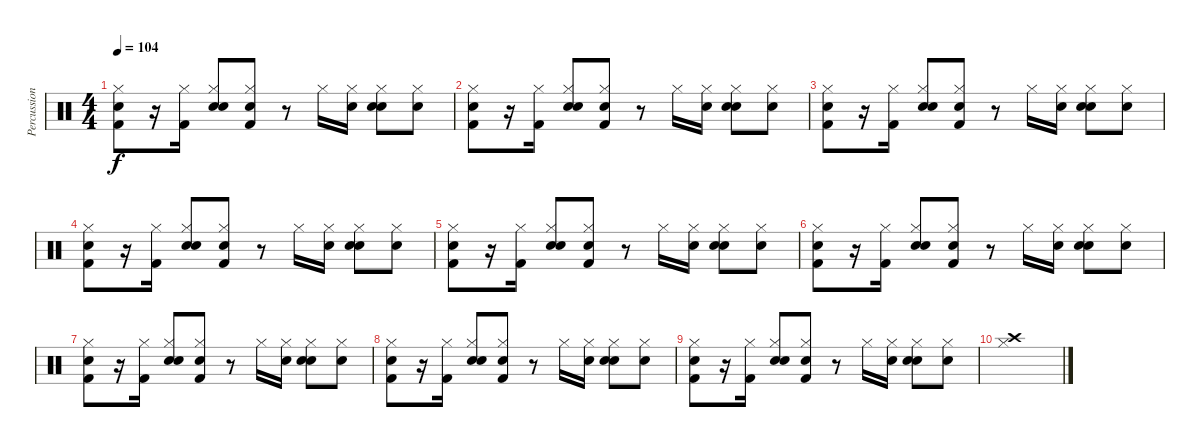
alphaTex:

\track ("Percussion" "Percussion") {instrument percussion}
\staff {score}
\articulation defaults
\ts (4 4)
\tempo 104
\clef neutral
\ks c
("Snare (hit)" "Hi-Hat (closed)" "Kick (hit) 2").8{dy f} r.16 ("Kick (hit) 2" "Hi-Hat (closed)").16 ("Snare (hit)" "Electric Snare (hit)" "Hi-Hat (closed)").8 ("Snare (hit)" "Kick (hit) 2" "Hi-Hat (closed)").8 r.8 "Hi-Hat (closed)".16 ("Snare (hit)" "Hi-Hat (closed)").16 ("Snare (hit)" "Electric Snare (hit)" "Hi-Hat (closed)").8 ("Snare (hit)" "Hi-Hat (closed)").8 |
("Snare (hit)" "Hi-Hat (closed)" "Kick (hit) 2").8 r.16 ("Kick (hit) 2" "Hi-Hat (closed)").16 ("Snare (hit)" "Electric Snare (hit)" "Hi-Hat (closed)").8 ("Snare (hit)" "Kick (hit) 2" "Hi-Hat (closed)").8 r.8 "Hi-Hat (closed)".16 ("Snare (hit)" "Hi-Hat (closed)").16 ("Snare (hit)" "Electric Snare (hit)" "Hi-Hat (closed)").8 ("Snare (hit)" "Hi-Hat (closed)").8 |
("Snare (hit)" "Hi-Hat (closed)" "Kick (hit) 2").8 r.16 ("Kick (hit) 2" "Hi-Hat (closed)").16 ("Snare (hit)" "Electric Snare (hit)" "Hi-Hat (closed)").8 ("Snare (hit)" "Kick (hit) 2" "Hi-Hat (closed)").8 r.8 "Hi-Hat (closed)".16 ("Snare (hit)" "Hi-Hat (closed)").16 ("Snare (hit)" "Electric Snare (hit)" "Hi-Hat (closed)").8 ("Snare (hit)" "Hi-Hat (closed)").8 |
("Snare (hit)" "Hi-Hat (closed)" "Kick (hit) 2").8 r.16 ("Kick (hit) 2" "Hi-Hat (closed)").16 ("Snare (hit)" "Electric Snare (hit)" "Hi-Hat (closed)").8 ("Snare (hit)" "Kick (hit) 2" "Hi-Hat (closed)").8 r.8 "Hi-Hat (closed)".16 ("Snare (hit)" "Hi-Hat (closed)").16 ("Snare (hit)" "Electric Snare (hit)" "Hi-Hat (closed)").8 ("Snare (hit)" "Hi-Hat (closed)").8 |
("Snare (hit)" "Hi-Hat (closed)" "Kick (hit) 2").8 r.16 ("Kick (hit) 2" "Hi-Hat (closed)").16 ("Snare (hit)" "Electric Snare (hit)" "Hi-Hat (closed)").8 ("Snare (hit)" "Kick (hit) 2" "Hi-Hat (closed)").8 r.8 "Hi-Hat (closed)".16 ("Snare (hit)" "Hi-Hat (closed)").16 ("Snare (hit)" "Electric Snare (hit)" "Hi-Hat (closed)").8 ("Snare (hit)" "Hi-Hat (closed)").8 |
("Snare (hit)" "Hi-Hat (closed)" "Kick (hit) 2").8 r.16 ("Kick (hit) 2" "Hi-Hat (closed)").16 ("Snare (hit)" "Electric Snare (hit)" "Hi-Hat (closed)").8 ("Snare (hit)" "Kick (hit) 2" "Hi-Hat (closed)").8 r.8 "Hi-Hat (closed)".16 ("Snare (hit)" "Hi-Hat (closed)").16 ("Snare (hit)" "Electric Snare (hit)" "Hi-Hat (closed)").8 ("Snare (hit)" "Hi-Hat (closed)").8 |
("Snare (hit)" "Hi-Hat (closed)" "Kick (hit) 2").8 r.16 ("Kick (hit) 2" "Hi-Hat (closed)").16 ("Snare (hit)" "Electric Snare (hit)" "Hi-Hat (closed)").8 ("Snare (hit)" "Kick (hit) 2" "Hi-Hat (closed)").8 r.8 "Hi-Hat (closed)".16 ("Snare (hit)" "Hi-Hat (closed)").16 ("Snare (hit)" "Electric Snare (hit)" "Hi-Hat (closed)").8 ("Snare (hit)" "Hi-Hat (closed)").8 |
("Snare (hit)" "Hi-Hat (closed)" "Kick (hit) 2").8 r.16 ("Kick (hit) 2" "Hi-Hat (closed)").16 ("Snare (hit)" "Electric Snare (hit)" "Hi-Hat (closed)").8 ("Snare (hit)" "Kick (hit) 2" "Hi-Hat (closed)").8 r.8 "Hi-Hat (closed)".16 ("Snare (hit)" "Hi-Hat (closed)").16 ("Snare (hit)" "Electric Snare (hit)" "Hi-Hat (closed)").8 ("Snare (hit)" "Hi-Hat (closed)").8 |
("Snare (hit)" "Hi-Hat (closed)" "Kick (hit) 2").8 r.16 ("Kick (hit) 2" "Hi-Hat (closed)").16 ("Snare (hit)" "Electric Snare (hit)" "Hi-Hat (closed)").8 ("Snare (hit)" "Kick (hit) 2" "Hi-Hat (closed)").8 r.8 "Hi-Hat (closed)".16 ("Snare (hit)" "Hi-Hat (closed)").16 ("Snare (hit)" "Electric Snare (hit)" "Hi-Hat (closed)").8 ("Snare (hit)" "Hi-Hat (closed)").8 |
("Crash high (hit)" "Hi-Hat (closed)").1
